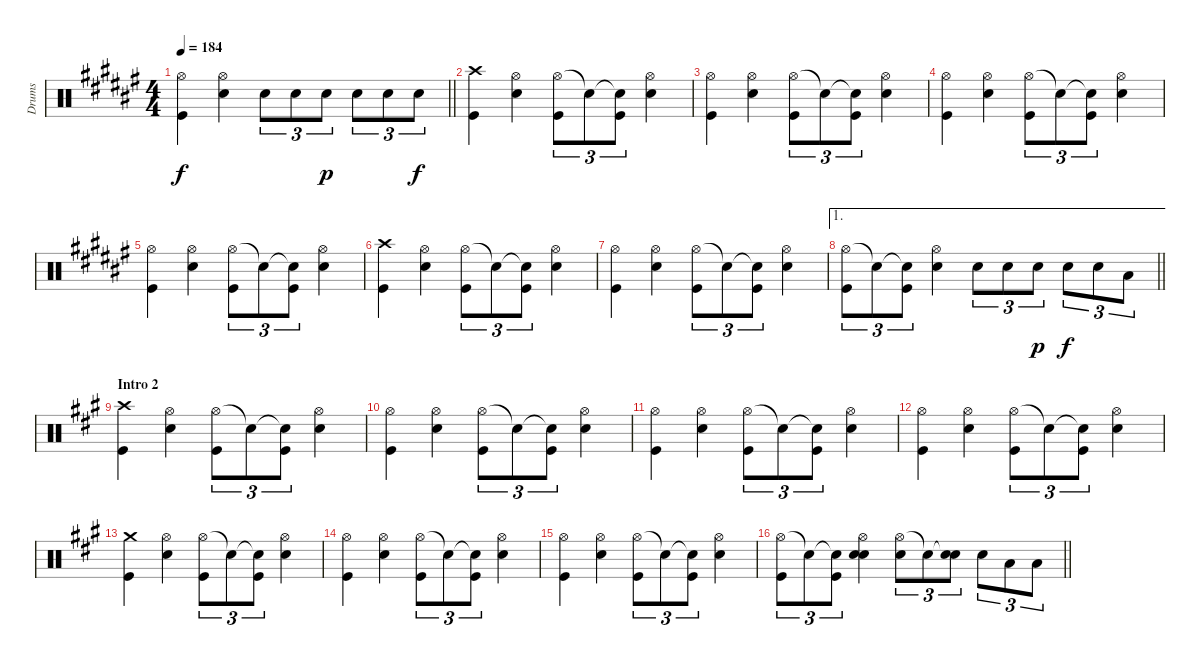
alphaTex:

\track ("Drums" "Drums") {instrument percussion}
\staff {score}
\articulation defaults
\ts (4 4)
\tempo 184
\clef neutral
\barLineRight lightlight
\ks f#
("Hi-Hat (open)" "Kick (hit)").4{dy f} ("Hi-Hat (open)" "Electric Snare (hit)").4 "Electric Snare (hit)".8{tu (3 2)} "Electric Snare (hit)".8{tu (3 2)} "Electric Snare (hit)".8{tu (3 2) dy p} "Electric Snare (hit)".8{tu (3 2)} "Electric Snare (hit)".8{tu (3 2)} "Electric Snare (hit)".8{tu (3 2) dy f} |
("Crash high (hit)" "Kick (hit)").4 ("Hi-Hat (open)" "Electric Snare (hit)").4 ("Hi-Hat (open)" "Kick (hit)").8{tu (3 2)} "Snare (hit)"{t}.8{tu (3 2)} ("Snare (hit)"{t} "Kick (hit)").8{tu (3 2)} ("Hi-Hat (open)" "Electric Snare (hit)").4 |
("Hi-Hat (open)" "Kick (hit)").4 ("Hi-Hat (open)" "Electric Snare (hit)").4 ("Hi-Hat (open)" "Kick (hit)").8{tu (3 2)} "Snare (hit)"{t}.8{tu (3 2)} ("Snare (hit)"{t} "Kick (hit)").8{tu (3 2)} ("Hi-Hat (open)" "Electric Snare (hit)").4 |
("Hi-Hat (open)" "Kick (hit)").4 ("Hi-Hat (open)" "Electric Snare (hit)").4 ("Hi-Hat (open)" "Kick (hit)").8{tu (3 2)} "Snare (hit)"{t}.8{tu (3 2)} ("Snare (hit)"{t} "Kick (hit)").8{tu (3 2)} ("Hi-Hat (open)" "Electric Snare (hit)").4 |
("Hi-Hat (open)" "Kick (hit)").4 ("Hi-Hat (open)" "Electric Snare (hit)").4 ("Hi-Hat (open)" "Kick (hit)").8{tu (3 2)} "Snare (hit)"{t}.8{tu (3 2)} ("Snare (hit)"{t} "Kick (hit)").8{tu (3 2)} ("Hi-Hat (open)" "Electric Snare (hit)").4 |
("Crash high (hit)" "Kick (hit)").4 ("Hi-Hat (open)" "Electric Snare (hit)").4 ("Hi-Hat (open)" "Kick (hit)").8{tu (3 2)} "Snare (hit)"{t}.8{tu (3 2)} ("Snare (hit)"{t} "Kick (hit)").8{tu (3 2)} ("Hi-Hat (open)" "Electric Snare (hit)").4 |
("Hi-Hat (open)" "Kick (hit)").4 ("Hi-Hat (open)" "Electric Snare (hit)").4 ("Hi-Hat (open)" "Kick (hit)").8{tu (3 2)} "Snare (hit)"{t}.8{tu (3 2)} ("Snare (hit)"{t} "Kick (hit)").8{tu (3 2)} ("Hi-Hat (open)" "Electric Snare (hit)").4 |
\ae 1
\barLineRight lightlight
("Hi-Hat (open)" "Kick (hit)").8{tu (3 2)} "Snare (hit)"{t}.8{tu (3 2)} ("Snare (hit)"{t} "Kick (hit)").8{tu (3 2)} ("Hi-Hat (open)" "Electric Snare (hit)").4 "Electric Snare (hit)".8{tu (3 2)} "Electric Snare (hit)".8{tu (3 2)} "Electric Snare (hit)".8{tu (3 2) dy p} "Electric Snare (hit)".8{tu (3 2) dy f} "Electric Snare (hit)".8{tu (3 2)} "Low Tom (hit)".8{tu (3 2)} |
\section ("" "Intro 2")
\ks f#minor
("Crash high (hit)" "Kick (hit)").4 ("Hi-Hat (open)" "Electric Snare (hit)").4 ("Hi-Hat (open)" "Kick (hit)").8{tu (3 2)} "Snare (hit)"{t}.8{tu (3 2)} ("Snare (hit)"{t} "Kick (hit)").8{tu (3 2)} ("Hi-Hat (open)" "Electric Snare (hit)").4 |
("Hi-Hat (open)" "Kick (hit)").4 ("Hi-Hat (open)" "Electric Snare (hit)").4 ("Hi-Hat (open)" "Kick (hit)").8{tu (3 2)} "Snare (hit)"{t}.8{tu (3 2)} ("Snare (hit)"{t} "Kick (hit)").8{tu (3 2)} ("Hi-Hat (open)" "Electric Snare (hit)").4 |
("Hi-Hat (open)" "Kick (hit)").4 ("Hi-Hat (open)" "Electric Snare (hit)").4 ("Hi-Hat (open)" "Kick (hit)").8{tu (3 2)} "Snare (hit)"{t}.8{tu (3 2)} ("Snare (hit)"{t} "Kick (hit)").8{tu (3 2)} ("Hi-Hat (open)" "Electric Snare (hit)").4 |
("Hi-Hat (open)" "Kick (hit)").4 ("Hi-Hat (open)" "Electric Snare (hit)").4 ("Hi-Hat (open)" "Kick (hit)").8{tu (3 2)} "Snare (hit)"{t}.8{tu (3 2)} ("Snare (hit)"{t} "Kick (hit)").8{tu (3 2)} ("Hi-Hat (open)" "Electric Snare (hit)").4 |
("Crash medium (hit)" "Kick (hit)").4 ("Hi-Hat (open)" "Electric Snare (hit)").4 ("Hi-Hat (open)" "Kick (hit)").8{tu (3 2)} "Snare (hit)"{t}.8{tu (3 2)} ("Snare (hit)"{t} "Kick (hit)").8{tu (3 2)} ("Hi-Hat (open)" "Electric Snare (hit)").4 |
("Hi-Hat (open)" "Kick (hit)").4 ("Hi-Hat (open)" "Electric Snare (hit)").4 ("Hi-Hat (open)" "Kick (hit)").8{tu (3 2)} "Snare (hit)"{t}.8{tu (3 2)} ("Snare (hit)"{t} "Kick (hit)").8{tu (3 2)} ("Hi-Hat (open)" "Electric Snare (hit)").4 |
("Hi-Hat (open)" "Kick (hit)").4 ("Hi-Hat (open)" "Electric Snare (hit)").4 ("Hi-Hat (open)" "Kick (hit)").8{tu (3 2)} "Snare (hit)"{t}.8{tu (3 2)} ("Snare (hit)"{t} "Kick (hit)").8{tu (3 2)} ("Hi-Hat (open)" "Electric Snare (hit)").4 |
\barLineRight lightlight
("Hi-Hat (open)" "Kick (hit)").8{tu (3 2)} "Snare (hit)"{t}.8{tu (3 2)} ("Snare (hit)"{t} "Kick (hit)").8{tu (3 2)} ("Hi-Hat (open)" "Electric Snare (hit)" "Snare (hit)").4 ("Hi-Hat (open)" "Electric Snare (hit)").8{tu (3 2)} "Snare (hit)"{t}.8{tu (3 2)} ("Snare (hit)"{t} "Electric Snare (hit)").8{tu (3 2)} "Electric Snare (hit)".8{tu (3 2)} "Low Tom (hit)".8{tu (3 2)} "Low Tom (hit)".8{tu (3 2)}
